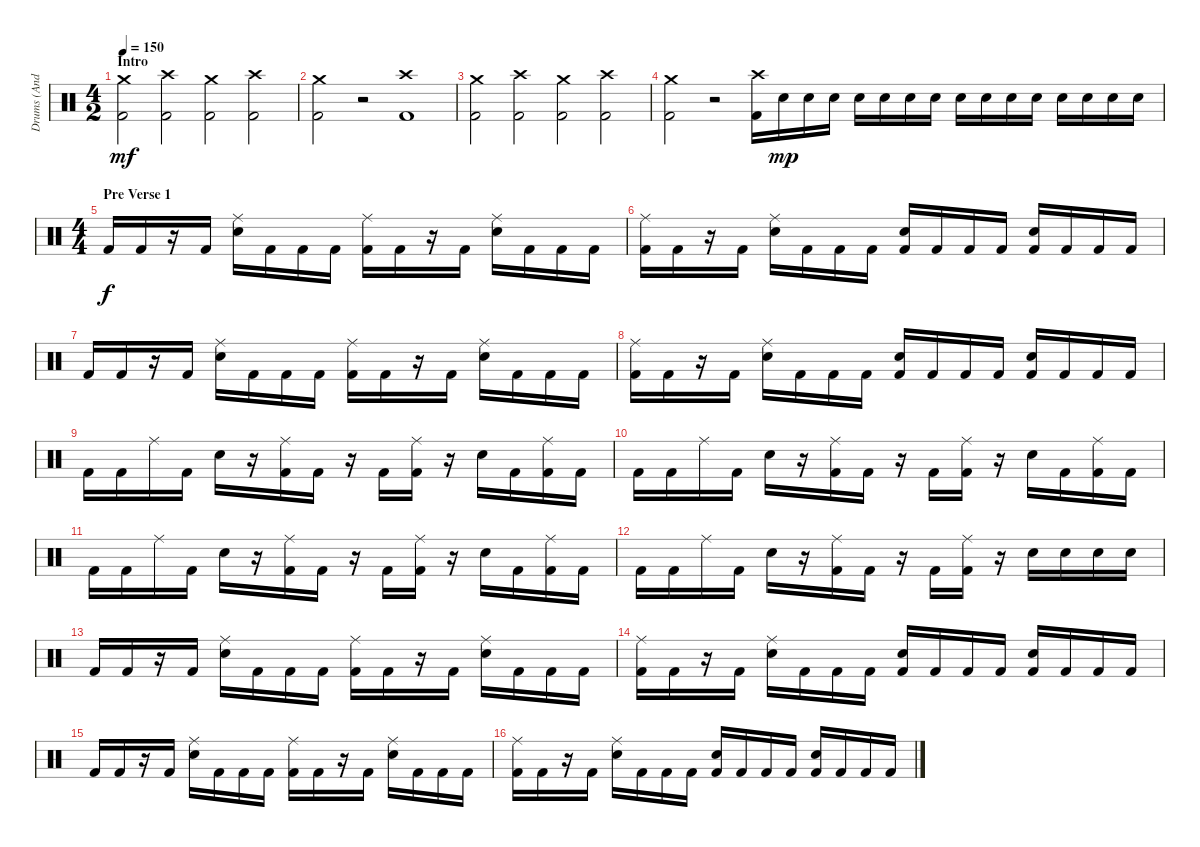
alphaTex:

\track ("Drums (Andy C)" "Drums (And") {instrument percussion}
\staff {score}
\articulation defaults
\ts (4 2)
\section ("" "Intro")
\tempo 150
\clef neutral
\ks c
("Crash medium (hit)" "Kick (hit) 2").2{dy mf} ("Crash high (hit)" "Kick (hit) 2").2 ("Crash medium (hit)" "Kick (hit) 2").2 ("Crash high (hit)" "Kick (hit) 2").2 |
("Crash medium (hit)" "Kick (hit) 2").2 r.2 ("Crash high (hit)" "Kick (hit) 2").1 |
("Crash medium (hit)" "Kick (hit) 2").2 ("Crash high (hit)" "Kick (hit) 2").2 ("Crash medium (hit)" "Kick (hit) 2").2 ("Crash high (hit)" "Kick (hit) 2").2 |
("Crash medium (hit)" "Kick (hit) 2").2 r.2 ("Crash high (hit)" "Kick (hit) 2").16 "Electric Snare (hit)".16{dy mp} "Electric Snare (hit)".16 "Electric Snare (hit)".16 "Electric Snare (hit)".16 "Electric Snare (hit)".16 "Electric Snare (hit)".16 "Electric Snare (hit)".16 "Electric Snare (hit)".16 "Electric Snare (hit)".16 "Electric Snare (hit)".16 "Electric Snare (hit)".16 "Electric Snare (hit)".16 "Electric Snare (hit)".16 "Electric Snare (hit)".16 "Electric Snare (hit)".16 |
\ts (4 4)
\section ("" "Pre Verse 1")
"Kick (hit) 2".16{dy f} "Kick (hit) 2".16 r.16 "Kick (hit) 2".16 ("Ride (middle)" "Electric Snare (hit)").16 "Kick (hit) 2".16 "Kick (hit) 2".16 "Kick (hit) 2".16 ("Ride (middle)" "Kick (hit) 2").16 "Kick (hit) 2".16 r.16 "Kick (hit) 2".16 ("Ride (middle)" "Electric Snare (hit)").16 "Kick (hit) 2".16 "Kick (hit) 2".16 "Kick (hit) 2".16 |
("Ride (middle)" "Kick (hit) 2").16 "Kick (hit) 2".16 r.16 "Kick (hit) 2".16 ("Ride (middle)" "Electric Snare (hit)").16 "Kick (hit) 2".16 "Kick (hit) 2".16 "Kick (hit) 2".16 ("Kick (hit) 2" "Electric Snare (hit)").16 "Kick (hit) 2".16 "Kick (hit) 2".16 "Kick (hit) 2".16 ("Kick (hit) 2" "Electric Snare (hit)").16 "Kick (hit) 2".16 "Kick (hit) 2".16 "Kick (hit) 2".16 |
"Kick (hit) 2".16 "Kick (hit) 2".16 r.16 "Kick (hit) 2".16 ("Ride (middle)" "Electric Snare (hit)").16 "Kick (hit) 2".16 "Kick (hit) 2".16 "Kick (hit) 2".16 ("Ride (middle)" "Kick (hit) 2").16 "Kick (hit) 2".16 r.16 "Kick (hit) 2".16 ("Ride (middle)" "Electric Snare (hit)").16 "Kick (hit) 2".16 "Kick (hit) 2".16 "Kick (hit) 2".16 |
("Ride (middle)" "Kick (hit) 2").16 "Kick (hit) 2".16 r.16 "Kick (hit) 2".16 ("Ride (middle)" "Electric Snare (hit)").16 "Kick (hit) 2".16 "Kick (hit) 2".16 "Kick (hit) 2".16 ("Kick (hit) 2" "Electric Snare (hit)").16 "Kick (hit) 2".16 "Kick (hit) 2".16 "Kick (hit) 2".16 ("Kick (hit) 2" "Electric Snare (hit)").16 "Kick (hit) 2".16 "Kick (hit) 2".16 "Kick (hit) 2".16 |
"Kick (hit) 2".16 "Kick (hit) 2".16 "Ride (middle)".16 "Kick (hit) 2".16 "Electric Snare (hit)".16 r.16 ("Ride (middle)" "Kick (hit) 2").16 "Kick (hit) 2".16 r.16 "Kick (hit) 2".16 ("Ride (middle)" "Kick (hit) 2").16 r.16 "Electric Snare (hit)".16 "Kick (hit) 2".16 ("Ride (middle)" "Kick (hit) 2").16 "Kick (hit) 2".16 |
"Kick (hit) 2".16 "Kick (hit) 2".16 "Ride (middle)".16 "Kick (hit) 2".16 "Electric Snare (hit)".16 r.16 ("Ride (middle)" "Kick (hit) 2").16 "Kick (hit) 2".16 r.16 "Kick (hit) 2".16 ("Ride (middle)" "Kick (hit) 2").16 r.16 "Electric Snare (hit)".16 "Kick (hit) 2".16 ("Ride (middle)" "Kick (hit) 2").16 "Kick (hit) 2".16 |
"Kick (hit) 2".16 "Kick (hit) 2".16 "Ride (middle)".16 "Kick (hit) 2".16 "Electric Snare (hit)".16 r.16 ("Ride (middle)" "Kick (hit) 2").16 "Kick (hit) 2".16 r.16 "Kick (hit) 2".16 ("Ride (middle)" "Kick (hit) 2").16 r.16 "Electric Snare (hit)".16 "Kick (hit) 2".16 ("Ride (middle)" "Kick (hit) 2").16 "Kick (hit) 2".16 |
"Kick (hit) 2".16 "Kick (hit) 2".16 "Ride (middle)".16 "Kick (hit) 2".16 "Electric Snare (hit)".16 r.16 ("Ride (middle)" "Kick (hit) 2").16 "Kick (hit) 2".16 r.16 "Kick (hit) 2".16 ("Ride (middle)" "Kick (hit) 2").16 r.16 "Electric Snare (hit)".16 "Electric Snare (hit)".16 "Electric Snare (hit)".16 "Electric Snare (hit)".16 |
"Kick (hit) 2".16 "Kick (hit) 2".16 r.16 "Kick (hit) 2".16 ("Ride (middle)" "Electric Snare (hit)").16 "Kick (hit) 2".16 "Kick (hit) 2".16 "Kick (hit) 2".16 ("Ride (middle)" "Kick (hit) 2").16 "Kick (hit) 2".16 r.16 "Kick (hit) 2".16 ("Ride (middle)" "Electric Snare (hit)").16 "Kick (hit) 2".16 "Kick (hit) 2".16 "Kick (hit) 2".16 |
("Ride (middle)" "Kick (hit) 2").16 "Kick (hit) 2".16 r.16 "Kick (hit) 2".16 ("Ride (middle)" "Electric Snare (hit)").16 "Kick (hit) 2".16 "Kick (hit) 2".16 "Kick (hit) 2".16 ("Kick (hit) 2" "Electric Snare (hit)").16 "Kick (hit) 2".16 "Kick (hit) 2".16 "Kick (hit) 2".16 ("Kick (hit) 2" "Electric Snare (hit)").16 "Kick (hit) 2".16 "Kick (hit) 2".16 "Kick (hit) 2".16 |
"Kick (hit) 2".16 "Kick (hit) 2".16 r.16 "Kick (hit) 2".16 ("Ride (middle)" "Electric Snare (hit)").16 "Kick (hit) 2".16 "Kick (hit) 2".16 "Kick (hit) 2".16 ("Ride (middle)" "Kick (hit) 2").16 "Kick (hit) 2".16 r.16 "Kick (hit) 2".16 ("Ride (middle)" "Electric Snare (hit)").16 "Kick (hit) 2".16 "Kick (hit) 2".16 "Kick (hit) 2".16 |
("Ride (middle)" "Kick (hit) 2").16 "Kick (hit) 2".16 r.16 "Kick (hit) 2".16 ("Ride (middle)" "Electric Snare (hit)").16 "Kick (hit) 2".16 "Kick (hit) 2".16 "Kick (hit) 2".16 ("Kick (hit) 2" "Electric Snare (hit)").16 "Kick (hit) 2".16 "Kick (hit) 2".16 "Kick (hit) 2".16 ("Kick (hit) 2" "Electric Snare (hit)").16 "Kick (hit) 2".16 "Kick (hit) 2".16 "Kick (hit) 2".16
